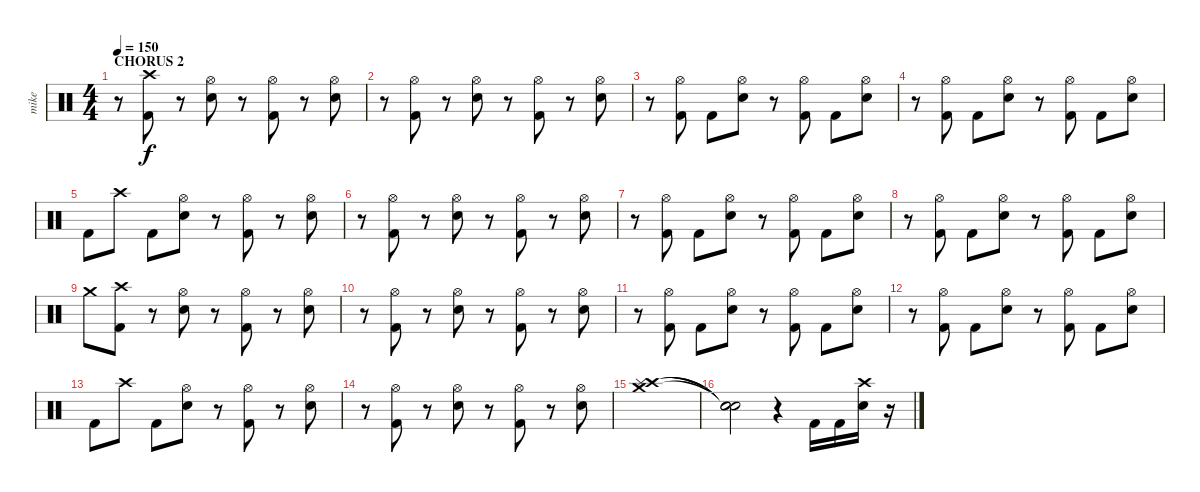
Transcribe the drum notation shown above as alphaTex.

\track ("mike" "mike") {instrument percussion}
\staff {score}
\articulation defaults
\ts (4 4)
\section ("" "CHORUS 2")
\tempo 150
\clef neutral
\ks c
r.8{dy f} ("Crash high (hit)" "Kick (hit) 2").8 r.8 ("Hi-Hat (open)" "Electric Snare (hit)").8 r.8 ("Hi-Hat (open)" "Kick (hit) 2").8 r.8 ("Hi-Hat (open)" "Electric Snare (hit)").8 |
r.8 ("Hi-Hat (open)" "Kick (hit) 2").8 r.8 ("Hi-Hat (open)" "Electric Snare (hit)").8 r.8 ("Hi-Hat (open)" "Kick (hit) 2").8 r.8 ("Hi-Hat (open)" "Electric Snare (hit)").8 |
r.8 ("Hi-Hat (open)" "Kick (hit) 2").8 "Kick (hit) 2".8 ("Hi-Hat (open)" "Electric Snare (hit)").8 r.8 ("Hi-Hat (open)" "Kick (hit) 2").8 "Kick (hit) 2".8 ("Hi-Hat (open)" "Electric Snare (hit)").8 |
r.8 ("Hi-Hat (open)" "Kick (hit) 2").8 "Kick (hit) 2".8 ("Hi-Hat (open)" "Electric Snare (hit)").8 r.8 ("Hi-Hat (open)" "Kick (hit) 2").8 "Kick (hit) 2".8 ("Hi-Hat (open)" "Electric Snare (hit)").8 |
"Kick (hit) 2".8 "Crash high (hit)".8 "Kick (hit) 2".8 ("Hi-Hat (open)" "Electric Snare (hit)").8 r.8 ("Hi-Hat (open)" "Kick (hit) 2").8 r.8 ("Hi-Hat (open)" "Electric Snare (hit)").8 |
r.8 ("Hi-Hat (open)" "Kick (hit) 2").8 r.8 ("Hi-Hat (open)" "Electric Snare (hit)").8 r.8 ("Hi-Hat (open)" "Kick (hit) 2").8 r.8 ("Hi-Hat (open)" "Electric Snare (hit)").8 |
r.8 ("Hi-Hat (open)" "Kick (hit) 2").8 "Kick (hit) 2".8 ("Hi-Hat (open)" "Electric Snare (hit)").8 r.8 ("Hi-Hat (open)" "Kick (hit) 2").8 "Kick (hit) 2".8 ("Hi-Hat (open)" "Electric Snare (hit)").8 |
r.8 ("Hi-Hat (open)" "Kick (hit) 2").8 "Kick (hit) 2".8 ("Hi-Hat (open)" "Electric Snare (hit)").8 r.8 ("Hi-Hat (open)" "Kick (hit) 2").8 "Kick (hit) 2".8 ("Hi-Hat (open)" "Electric Snare (hit)").8 |
"Crash medium (hit)".8 ("Crash high (hit)" "Kick (hit) 2").8 r.8 ("Hi-Hat (open)" "Electric Snare (hit)").8 r.8 ("Hi-Hat (open)" "Kick (hit) 2").8 r.8 ("Hi-Hat (open)" "Electric Snare (hit)").8 |
r.8 ("Hi-Hat (open)" "Kick (hit) 2").8 r.8 ("Hi-Hat (open)" "Electric Snare (hit)").8 r.8 ("Hi-Hat (open)" "Kick (hit) 2").8 r.8 ("Hi-Hat (open)" "Electric Snare (hit)").8 |
r.8 ("Hi-Hat (open)" "Kick (hit) 2").8 "Kick (hit) 2".8 ("Hi-Hat (open)" "Electric Snare (hit)").8 r.8 ("Hi-Hat (open)" "Kick (hit) 2").8 "Kick (hit) 2".8 ("Hi-Hat (open)" "Electric Snare (hit)").8 |
r.8 ("Hi-Hat (open)" "Kick (hit) 2").8 "Kick (hit) 2".8 ("Hi-Hat (open)" "Electric Snare (hit)").8 r.8 ("Hi-Hat (open)" "Kick (hit) 2").8 "Kick (hit) 2".8 ("Hi-Hat (open)" "Electric Snare (hit)").8 |
"Kick (hit) 2".8 "Crash high (hit)".8 "Kick (hit) 2".8 ("Hi-Hat (open)" "Electric Snare (hit)").8 r.8 ("Hi-Hat (open)" "Kick (hit) 2").8 r.8 ("Hi-Hat (open)" "Electric Snare (hit)").8 |
r.8 ("Hi-Hat (open)" "Kick (hit) 2").8 r.8 ("Hi-Hat (open)" "Electric Snare (hit)").8 r.8 ("Hi-Hat (open)" "Kick (hit) 2").8 r.8 ("Hi-Hat (open)" "Electric Snare (hit)").8 |
("Crash high (hit)" "Crash medium (hit)" "Splash (hit)").1 |
("Snare (hit)"{t} "Snare (hit)"{t} "Snare (hit)"{t}).2 r.4 "Kick (hit) 2".16 "Kick (hit) 2".16 ("Crash high (hit)" "Electric Snare (hit)").16 r.16
